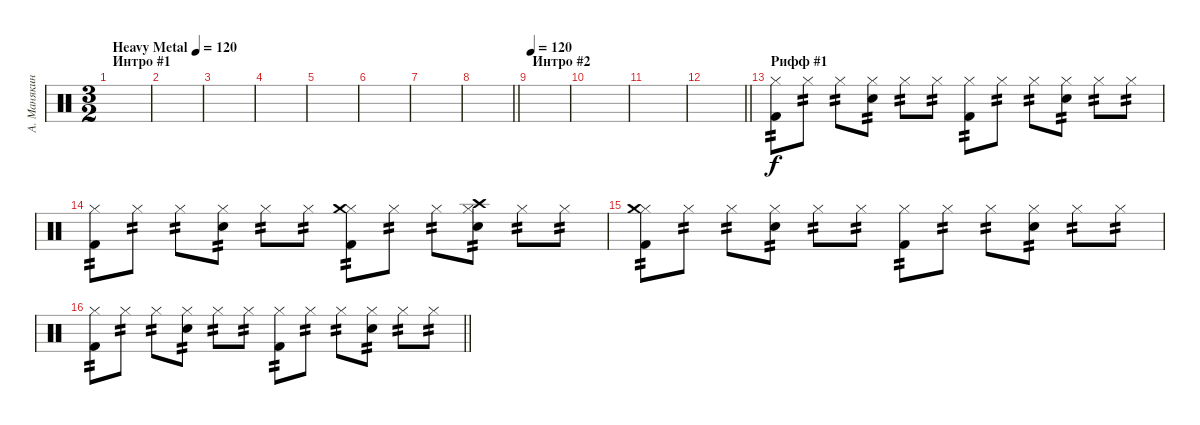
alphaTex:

\track ("А. Манякин" "А. Манякин") {instrument percussion}
\staff {score}
\articulation defaults
\ts (3 2)
\section ("" "Интро #1")
\tempo (120 "Heavy Metal")
\tempo 100
\tempo (120 "Heavy Metal")
\clef neutral
\ks c
|
|
|
|
|
|
|
\barLineRight lightlight
|
\section ("" "Интро #2")
\tempo 120
|
|
|
\barLineRight lightlight
|
\section ("" "Рифф #1")
("Kick (hit) 2" "Hi-Hat (closed)").8{tp 2} "Hi-Hat (closed)".8{tp 2} "Hi-Hat (closed)".8{tp 2} ("Electric Snare (hit)" "Hi-Hat (closed)").8{tp 2} "Hi-Hat (closed)".8{tp 2} "Hi-Hat (closed)".8{tp 2} ("Kick (hit) 2" "Hi-Hat (closed)").8{tp 2} "Hi-Hat (closed)".8{tp 2} "Hi-Hat (closed)".8{tp 2} ("Electric Snare (hit)" "Hi-Hat (closed)").8{tp 2} "Hi-Hat (closed)".8{tp 2} "Hi-Hat (closed)".8{tp 2} |
("Kick (hit) 2" "Hi-Hat (closed)").8{tp 2} "Hi-Hat (closed)".8{tp 2} "Hi-Hat (closed)".8{tp 2} ("Electric Snare (hit)" "Hi-Hat (closed)").8{tp 2} "Hi-Hat (closed)".8{tp 2} "Hi-Hat (closed)".8{tp 2} ("Kick (hit) 2" "Hi-Hat (closed)" "Crash medium (hit)").8{tp 2} "Hi-Hat (closed)".8{tp 2} "Hi-Hat (closed)".8{tp 2} ("Electric Snare (hit)" "Hi-Hat (closed)" "Crash high (hit)").8{tp 2} "Hi-Hat (closed)".8{tp 2} "Hi-Hat (closed)".8{tp 2} |
("Kick (hit) 2" "Hi-Hat (closed)" "Crash medium (hit)").8{tp 2} "Hi-Hat (closed)".8{tp 2} "Hi-Hat (closed)".8{tp 2} ("Electric Snare (hit)" "Hi-Hat (closed)").8{tp 2} "Hi-Hat (closed)".8{tp 2} "Hi-Hat (closed)".8{tp 2} ("Kick (hit) 2" "Hi-Hat (closed)").8{tp 2} "Hi-Hat (closed)".8{tp 2} "Hi-Hat (closed)".8{tp 2} ("Electric Snare (hit)" "Hi-Hat (closed)").8{tp 2} "Hi-Hat (closed)".8{tp 2} "Hi-Hat (closed)".8{tp 2} |
\barLineRight lightlight
("Kick (hit) 2" "Hi-Hat (closed)").8{tp 2} "Hi-Hat (closed)".8{tp 2} "Hi-Hat (closed)".8{tp 2} ("Electric Snare (hit)" "Hi-Hat (closed)").8{tp 2} "Hi-Hat (closed)".8{tp 2} "Hi-Hat (closed)".8{tp 2} ("Kick (hit) 2" "Hi-Hat (closed)").8{tp 2} "Hi-Hat (closed)".8{tp 2} "Hi-Hat (closed)".8{tp 2} ("Electric Snare (hit)" "Hi-Hat (closed)").8{tp 2} "Hi-Hat (closed)".8{tp 2} "Hi-Hat (closed)".8{tp 2}
